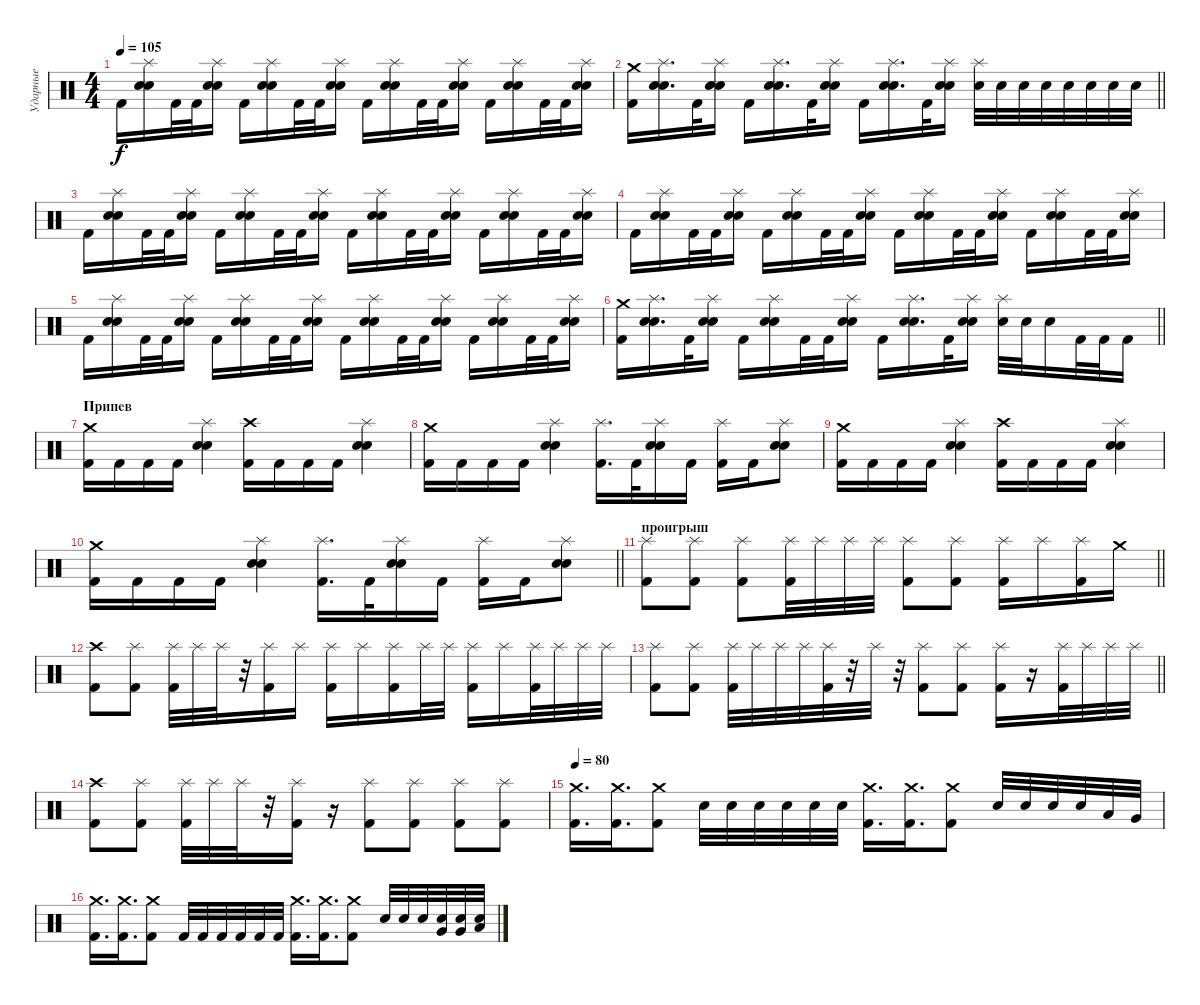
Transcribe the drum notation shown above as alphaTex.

\track ("Ударные" "Ударные") {instrument percussion}
\staff {score}
\articulation defaults
\ts (4 4)
\tempo 105
\clef neutral
\ks c "Kick (hit) 2".16{dy f}
("Splash (hit)" "Electric Snare (hit)" "Snare (hit) 2").16 "Kick (hit) 2".32 "Kick (hit) 2".32 ("Splash (hit)" "Electric Snare (hit)" "Snare (hit) 2").16 "Kick (hit) 2".16 ("Splash (hit)" "Electric Snare (hit)" "Snare (hit) 2").16 "Kick (hit) 2".32 "Kick (hit) 2".32 ("Splash (hit)" "Electric Snare (hit)" "Snare (hit) 2").16 "Kick (hit) 2".16 ("Splash (hit)" "Electric Snare (hit)" "Snare (hit) 2").16 "Kick (hit) 2".32 "Kick (hit) 2".32 ("Splash (hit)" "Electric Snare (hit)" "Snare (hit) 2").16 "Kick (hit) 2".16 ("Splash (hit)" "Electric Snare (hit)" "Snare (hit) 2").16 "Kick (hit) 2".32 "Kick (hit) 2".32 ("Splash (hit)" "Electric Snare (hit)" "Snare (hit) 2").16 |
\barLineRight lightlight
("Crash medium (hit)" "Kick (hit) 2").16 ("Splash (hit)" "Electric Snare (hit)" "Snare (hit) 2").16{d} "Kick (hit) 2".32 ("Splash (hit)" "Electric Snare (hit)" "Snare (hit) 2").16 "Kick (hit) 2".16 ("Splash (hit)" "Electric Snare (hit)" "Snare (hit) 2").16{d} "Kick (hit) 2".32 ("Splash (hit)" "Electric Snare (hit)" "Snare (hit) 2").16 "Kick (hit) 2".16 ("Splash (hit)" "Electric Snare (hit)" "Snare (hit) 2").16{d} "Kick (hit) 2".32 ("Splash (hit)" "Electric Snare (hit)" "Snare (hit) 2").16 ("Splash (hit)" "Electric Snare (hit)").32 "Electric Snare (hit)".32 "Electric Snare (hit)".32 "Electric Snare (hit)".32 "Electric Snare (hit)".32 "Electric Snare (hit)".32 "Electric Snare (hit)".32 "Electric Snare (hit)".32 |
"Kick (hit) 2".16 ("Splash (hit)" "Electric Snare (hit)" "Snare (hit) 2").16 "Kick (hit) 2".32 "Kick (hit) 2".32 ("Splash (hit)" "Electric Snare (hit)" "Snare (hit) 2").16 "Kick (hit) 2".16 ("Splash (hit)" "Electric Snare (hit)" "Snare (hit) 2").16 "Kick (hit) 2".32 "Kick (hit) 2".32 ("Splash (hit)" "Electric Snare (hit)" "Snare (hit) 2").16 "Kick (hit) 2".16 ("Splash (hit)" "Electric Snare (hit)" "Snare (hit) 2").16 "Kick (hit) 2".32 "Kick (hit) 2".32 ("Splash (hit)" "Electric Snare (hit)" "Snare (hit) 2").16 "Kick (hit) 2".16 ("Splash (hit)" "Electric Snare (hit)" "Snare (hit) 2").16 "Kick (hit) 2".32 "Kick (hit) 2".32 ("Splash (hit)" "Electric Snare (hit)" "Snare (hit) 2").16 |
"Kick (hit) 2".16 ("Splash (hit)" "Electric Snare (hit)" "Snare (hit) 2").16 "Kick (hit) 2".32 "Kick (hit) 2".32 ("Splash (hit)" "Electric Snare (hit)" "Snare (hit) 2").16 "Kick (hit) 2".16 ("Splash (hit)" "Electric Snare (hit)" "Snare (hit) 2").16 "Kick (hit) 2".32 "Kick (hit) 2".32 ("Splash (hit)" "Electric Snare (hit)" "Snare (hit) 2").16 "Kick (hit) 2".16 ("Splash (hit)" "Electric Snare (hit)" "Snare (hit) 2").16 "Kick (hit) 2".32 "Kick (hit) 2".32 ("Splash (hit)" "Electric Snare (hit)" "Snare (hit) 2").16 "Kick (hit) 2".16 ("Splash (hit)" "Electric Snare (hit)" "Snare (hit) 2").16 "Kick (hit) 2".32 "Kick (hit) 2".32 ("Splash (hit)" "Electric Snare (hit)" "Snare (hit) 2").16 |
"Kick (hit) 2".16 ("Splash (hit)" "Electric Snare (hit)" "Snare (hit) 2").16 "Kick (hit) 2".32 "Kick (hit) 2".32 ("Splash (hit)" "Electric Snare (hit)" "Snare (hit) 2").16 "Kick (hit) 2".16 ("Splash (hit)" "Electric Snare (hit)" "Snare (hit) 2").16 "Kick (hit) 2".32 "Kick (hit) 2".32 ("Splash (hit)" "Electric Snare (hit)" "Snare (hit) 2").16 "Kick (hit) 2".16 ("Splash (hit)" "Electric Snare (hit)" "Snare (hit) 2").16 "Kick (hit) 2".32 "Kick (hit) 2".32 ("Splash (hit)" "Electric Snare (hit)" "Snare (hit) 2").16 "Kick (hit) 2".16 ("Splash (hit)" "Electric Snare (hit)" "Snare (hit) 2").16 "Kick (hit) 2".32 "Kick (hit) 2".32 ("Splash (hit)" "Electric Snare (hit)" "Snare (hit) 2").16 |
\barLineRight lightlight
("Crash medium (hit)" "Kick (hit) 2").16 ("Splash (hit)" "Electric Snare (hit)" "Snare (hit) 2").16{d} "Kick (hit) 2".32 ("Splash (hit)" "Electric Snare (hit)" "Snare (hit) 2").16 "Kick (hit) 2".16 ("Splash (hit)" "Electric Snare (hit)" "Snare (hit) 2").16 "Kick (hit) 2".32 "Kick (hit) 2".32 ("Splash (hit)" "Electric Snare (hit)" "Snare (hit) 2").16 "Kick (hit) 2".16 ("Splash (hit)" "Electric Snare (hit)" "Snare (hit) 2").16{d} "Kick (hit) 2".32 ("Splash (hit)" "Electric Snare (hit)" "Snare (hit) 2").16 ("Splash (hit)" "Electric Snare (hit)").32 "Electric Snare (hit)".32 "Electric Snare (hit)".16 "Kick (hit) 2".32 "Kick (hit) 2".32 "Kick (hit) 2".16 |
\section ("" "Припев")
("Crash medium (hit)" "Kick (hit) 2").16 "Kick (hit) 2".16 "Kick (hit) 2".16 "Kick (hit) 2".16 ("Splash (hit)" "Electric Snare (hit)" "Snare (hit) 2").4 ("Crash high (hit)" "Kick (hit) 2").16 "Kick (hit) 2".16 "Kick (hit) 2".16 "Kick (hit) 2".16 ("Splash (hit)" "Electric Snare (hit)" "Snare (hit) 2").4 |
("Crash medium (hit)" "Kick (hit) 2").16 "Kick (hit) 2".16 "Kick (hit) 2".16 "Kick (hit) 2".16 ("Splash (hit)" "Electric Snare (hit)" "Snare (hit) 2").4 ("Splash (hit)" "Kick (hit) 2").16{d} "Kick (hit) 2".32 ("Splash (hit)" "Electric Snare (hit)" "Snare (hit) 2").16 "Kick (hit) 2".16 ("Splash (hit)" "Kick (hit) 2").16 "Kick (hit) 2".16 ("Splash (hit)" "Electric Snare (hit)" "Snare (hit) 2").8 |
("Crash medium (hit)" "Kick (hit) 2").16 "Kick (hit) 2".16 "Kick (hit) 2".16 "Kick (hit) 2".16 ("Splash (hit)" "Electric Snare (hit)" "Snare (hit) 2").4 ("Crash high (hit)" "Kick (hit) 2").16 "Kick (hit) 2".16 "Kick (hit) 2".16 "Kick (hit) 2".16 ("Splash (hit)" "Electric Snare (hit)" "Snare (hit) 2").4 |
\barLineRight lightlight
("Crash medium (hit)" "Kick (hit) 2").16 "Kick (hit) 2".16 "Kick (hit) 2".16 "Kick (hit) 2".16 ("Splash (hit)" "Electric Snare (hit)" "Snare (hit) 2").4 ("Splash (hit)" "Kick (hit) 2").16{d} "Kick (hit) 2".32 ("Splash (hit)" "Electric Snare (hit)" "Snare (hit) 2").16 "Kick (hit) 2".16 ("Splash (hit)" "Kick (hit) 2").16 "Kick (hit) 2".16 ("Splash (hit)" "Electric Snare (hit)" "Snare (hit) 2").8 |
\section ("" "проигрыш")
\barLineRight lightlight
("Splash (hit)" "Kick (hit) 2").8 ("Splash (hit)" "Kick (hit) 2").8 ("Splash (hit)" "Kick (hit) 2").8 ("Splash (hit)" "Kick (hit) 2").32 "Splash (hit)".32 "Splash (hit)".32 "Splash (hit)".32 ("Splash (hit)" "Kick (hit) 2").8 ("Splash (hit)" "Kick (hit) 2").8 ("Splash (hit)" "Kick (hit) 2").16 "Splash (hit)".16 ("Splash (hit)" "Kick (hit) 2").16 "Crash medium (hit)".16 |
("Crash high (hit)" "Kick (hit) 2").8 ("Splash (hit)" "Kick (hit) 2").8 ("Splash (hit)" "Kick (hit) 2").32 "Splash (hit)".32 "Splash (hit)".32 r.32 ("Splash (hit)" "Kick (hit) 2").16 "Splash (hit)".16 ("Splash (hit)" "Kick (hit) 2").16 "Splash (hit)".16 ("Splash (hit)" "Kick (hit) 2").16 "Splash (hit)".32 "Splash (hit)".32 ("Splash (hit)" "Kick (hit) 2").16 "Splash (hit)".16 ("Splash (hit)" "Kick (hit) 2").32 "Splash (hit)".32 "Splash (hit)".32 "Splash (hit)".32 |
\barLineRight lightlight
("Splash (hit)" "Kick (hit) 2").8 ("Splash (hit)" "Kick (hit) 2").8 ("Splash (hit)" "Kick (hit) 2").32 "Splash (hit)".32 "Splash (hit)".32 "Splash (hit)".32 ("Splash (hit)" "Kick (hit) 2").32 r.32 "Splash (hit)".32 r.32 ("Splash (hit)" "Kick (hit) 2").8 ("Splash (hit)" "Kick (hit) 2").8 ("Splash (hit)" "Kick (hit) 2").16 r.16 ("Splash (hit)" "Kick (hit) 2").32 "Splash (hit)".32 "Splash (hit)".32 "Splash (hit)".32 |
("Crash high (hit)" "Kick (hit) 2").8 ("Splash (hit)" "Kick (hit) 2").8 ("Splash (hit)" "Kick (hit) 2").32 "Splash (hit)".32 "Splash (hit)".32 r.32 ("Splash (hit)" "Kick (hit) 2").16 r.16 ("Splash (hit)" "Kick (hit) 2").8 ("Splash (hit)" "Kick (hit) 2").8 ("Splash (hit)" "Kick (hit) 2").8 ("Splash (hit)" "Kick (hit) 2").8 |
\tempo 80
("Crash medium (hit)" "Kick (hit) 2").16{d} ("Crash medium (hit)" "Kick (hit) 2").16{d} ("Crash medium (hit)" "Kick (hit) 2").8 "Electric Snare (hit)".32 "Electric Snare (hit)".32 "Electric Snare (hit)".32 "Electric Snare (hit)".32 "Electric Snare (hit)".32 "Electric Snare (hit)".32 ("Crash medium (hit)" "Kick (hit) 2").16{d} ("Crash medium (hit)" "Kick (hit) 2").16{d} ("Crash medium (hit)" "Kick (hit) 2").8 "Electric Snare (hit)".32 "Electric Snare (hit)".32 "Electric Snare (hit)".32 "Electric Snare (hit)".32 "Low Tom (hit)".32 "Very Low Tom (hit)".32 |
("Crash medium (hit)" "Kick (hit) 2").16{d} ("Crash medium (hit)" "Kick (hit) 2").16{d} ("Crash medium (hit)" "Kick (hit) 2").8 "Kick (hit) 2".32 "Kick (hit) 2".32 "Kick (hit) 2".32 "Kick (hit) 2".32 "Kick (hit) 2".32 "Kick (hit) 2".32 ("Crash medium (hit)" "Kick (hit) 2").16{d} ("Crash medium (hit)" "Kick (hit) 2").16{d} ("Crash medium (hit)" "Kick (hit) 2").8 "Electric Snare (hit)".32 "Electric Snare (hit)".32 "Electric Snare (hit)".32 ("Electric Snare (hit)" "Very Low Tom (hit)").32 ("Electric Snare (hit)" "Very Low Tom (hit)").32 ("Electric Snare (hit)" "Low Floor Tom (hit)").32
